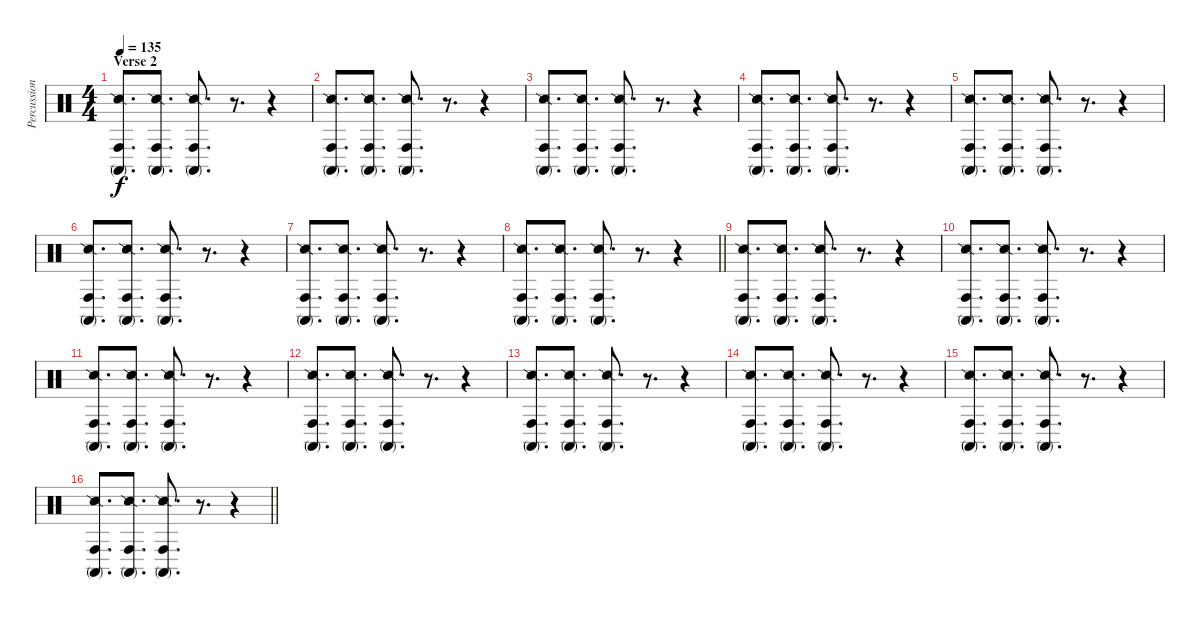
\track ("Percussion FX" "Percussion") {instrument percussion}
\staff {score}
\articulation defaults
\ts (4 4)
\section ("" "Verse 2")
\tempo 135
\clef neutral
\ks c
("Snare (side stick) 2" "Conga high (mute)" "Conga high (hit)").8{d dy f} ("Snare (side stick) 2" "Conga high (mute)" "Conga high (hit)").8{d} ("Snare (side stick) 2" "Conga high (mute)" "Conga high (hit)").8{d} r.8{d} r.4 |
("Snare (side stick) 2" "Conga high (mute)" "Conga high (hit)").8{d} ("Snare (side stick) 2" "Conga high (mute)" "Conga high (hit)").8{d} ("Snare (side stick) 2" "Conga high (mute)" "Conga high (hit)").8{d} r.8{d} r.4 |
("Snare (side stick) 2" "Conga high (mute)" "Conga high (hit)").8{d} ("Snare (side stick) 2" "Conga high (mute)" "Conga high (hit)").8{d} ("Snare (side stick) 2" "Conga high (mute)" "Conga high (hit)").8{d} r.8{d} r.4 |
("Snare (side stick) 2" "Conga high (mute)" "Conga high (hit)").8{d} ("Snare (side stick) 2" "Conga high (mute)" "Conga high (hit)").8{d} ("Snare (side stick) 2" "Conga high (mute)" "Conga high (hit)").8{d} r.8{d} r.4 |
("Snare (side stick) 2" "Conga high (mute)" "Conga high (hit)").8{d} ("Snare (side stick) 2" "Conga high (mute)" "Conga high (hit)").8{d} ("Snare (side stick) 2" "Conga high (mute)" "Conga high (hit)").8{d} r.8{d} r.4 |
("Snare (side stick) 2" "Conga high (mute)" "Conga high (hit)").8{d} ("Snare (side stick) 2" "Conga high (mute)" "Conga high (hit)").8{d} ("Snare (side stick) 2" "Conga high (mute)" "Conga high (hit)").8{d} r.8{d} r.4 |
("Snare (side stick) 2" "Conga high (mute)" "Conga high (hit)").8{d} ("Snare (side stick) 2" "Conga high (mute)" "Conga high (hit)").8{d} ("Snare (side stick) 2" "Conga high (mute)" "Conga high (hit)").8{d} r.8{d} r.4 |
\barLineRight lightlight
("Snare (side stick) 2" "Conga high (mute)" "Conga high (hit)").8{d} ("Snare (side stick) 2" "Conga high (mute)" "Conga high (hit)").8{d} ("Snare (side stick) 2" "Conga high (mute)" "Conga high (hit)").8{d} r.8{d} r.4 |
("Snare (side stick) 2" "Conga high (mute)" "Conga high (hit)").8{d} ("Snare (side stick) 2" "Conga high (mute)" "Conga high (hit)").8{d} ("Snare (side stick) 2" "Conga high (mute)" "Conga high (hit)").8{d} r.8{d} r.4 |
("Snare (side stick) 2" "Conga high (mute)" "Conga high (hit)").8{d} ("Snare (side stick) 2" "Conga high (mute)" "Conga high (hit)").8{d} ("Snare (side stick) 2" "Conga high (mute)" "Conga high (hit)").8{d} r.8{d} r.4 |
("Snare (side stick) 2" "Conga high (mute)" "Conga high (hit)").8{d} ("Snare (side stick) 2" "Conga high (mute)" "Conga high (hit)").8{d} ("Snare (side stick) 2" "Conga high (mute)" "Conga high (hit)").8{d} r.8{d} r.4 |
("Snare (side stick) 2" "Conga high (mute)" "Conga high (hit)").8{d} ("Snare (side stick) 2" "Conga high (mute)" "Conga high (hit)").8{d} ("Snare (side stick) 2" "Conga high (mute)" "Conga high (hit)").8{d} r.8{d} r.4 |
("Snare (side stick) 2" "Conga high (mute)" "Conga high (hit)").8{d} ("Snare (side stick) 2" "Conga high (mute)" "Conga high (hit)").8{d} ("Snare (side stick) 2" "Conga high (mute)" "Conga high (hit)").8{d} r.8{d} r.4 |
("Snare (side stick) 2" "Conga high (mute)" "Conga high (hit)").8{d} ("Snare (side stick) 2" "Conga high (mute)" "Conga high (hit)").8{d} ("Snare (side stick) 2" "Conga high (mute)" "Conga high (hit)").8{d} r.8{d} r.4 |
("Snare (side stick) 2" "Conga high (mute)" "Conga high (hit)").8{d} ("Snare (side stick) 2" "Conga high (mute)" "Conga high (hit)").8{d} ("Snare (side stick) 2" "Conga high (mute)" "Conga high (hit)").8{d} r.8{d} r.4 |
\barLineRight lightlight
("Snare (side stick) 2" "Conga high (mute)" "Conga high (hit)").8{d} ("Snare (side stick) 2" "Conga high (mute)" "Conga high (hit)").8{d} ("Snare (side stick) 2" "Conga high (mute)" "Conga high (hit)").8{d} r.8{d} r.4
